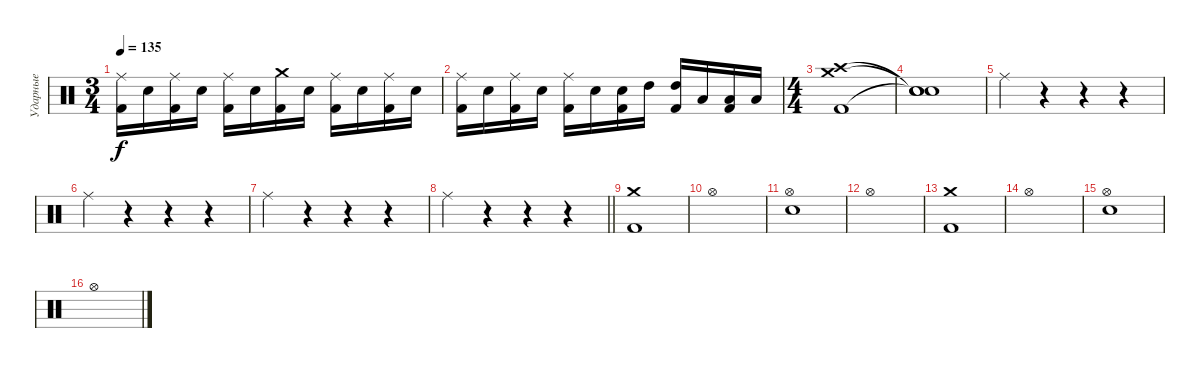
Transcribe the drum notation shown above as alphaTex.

\track ("Ударные" "Ударные") {instrument percussion}
\staff {score}
\articulation defaults
\ts (3 4)
\tempo 135
\clef neutral
\ks c
("Ride (middle)" "Kick (hit) 2").16{dy f} "Electric Snare (hit)".16 ("Ride (middle)" "Kick (hit) 2").16 "Electric Snare (hit)".16 ("Ride (middle)" "Kick (hit) 2").16 "Electric Snare (hit)".16 ("Crash medium (hit)" "Kick (hit) 2").16 "Electric Snare (hit)".16 ("Ride (middle)" "Kick (hit) 2").16 "Electric Snare (hit)".16 ("Ride (middle)" "Kick (hit) 2").16 "Electric Snare (hit)".16 |
("Ride (middle)" "Kick (hit) 2").16 "Electric Snare (hit)".16 ("Ride (middle)" "Kick (hit) 2").16 "Electric Snare (hit)".16 ("Ride (middle)" "Kick (hit) 2").16 "Electric Snare (hit)".16 ("Electric Snare (hit)" "Kick (hit) 2").16 "High Tom (hit)".16 ("High Tom (hit)" "Kick (hit) 2").16 "Low Tom (hit)".16 ("Low Tom (hit)" "Kick (hit) 2").16 "Low Tom (hit)".16 |
\ts (4 4)
("Crash high (hit)" "Crash medium (hit)" "Kick (hit) 2").1 |
("Snare (hit)"{t} "Snare (hit)"{t} "Snare (hit)"{t}).1 |
"Ride (middle)".4 r.4 r.4 r.4 |
"Ride (middle)".4 r.4 r.4 r.4 |
"Ride (middle)".4 r.4 r.4 r.4 |
\barLineRight lightlight "Ride (middle)".4
r.4 r.4 r.4 |
("Crash medium (hit)" "Kick (hit) 2").1 |
"Hi-Hat (open)".1 |
("Hi-Hat (open)" "Electric Snare (hit)").1 |
"Hi-Hat (open)".1 |
("Crash medium (hit)" "Kick (hit) 2").1 |
"Hi-Hat (open)".1 |
("Hi-Hat (open)" "Electric Snare (hit)").1 |
"Hi-Hat (open)".1
